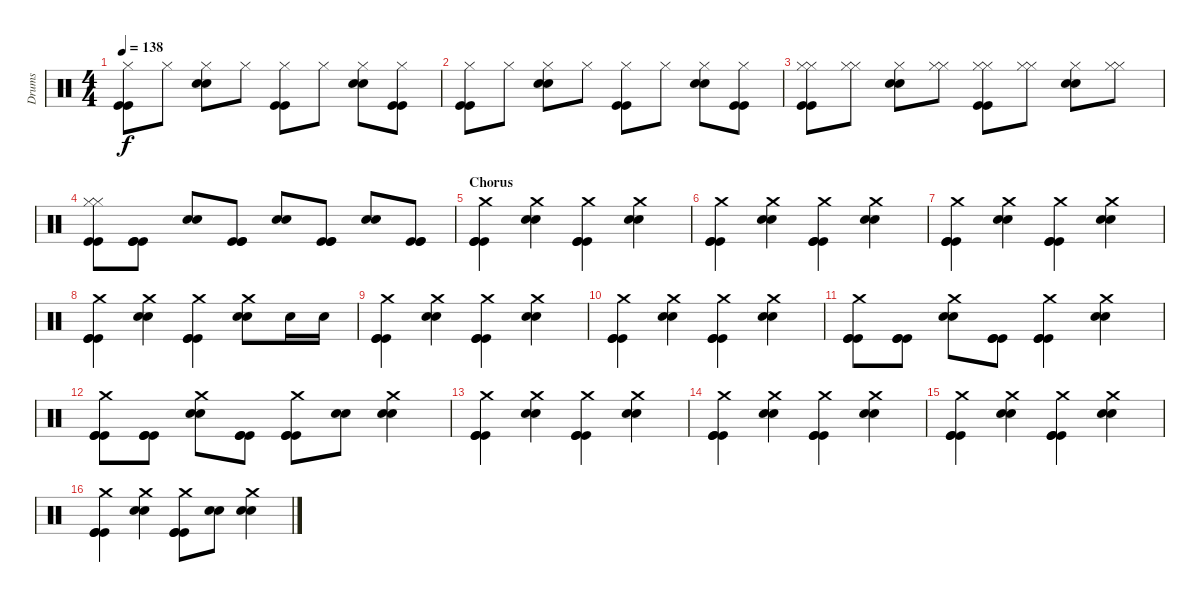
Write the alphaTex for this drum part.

\track ("Drums" "Drums") {instrument percussion}
\staff {score}
\articulation defaults
\ts (4 4)
\tempo 138
\clef neutral
\ks c
("Hi-Hat (closed)" "Kick (hit)" "Kick (hit)").8{dy f} "Hi-Hat (closed)".8 ("Hi-Hat (closed)" "Electric Snare (hit)" "Electric Snare (hit)").8 "Hi-Hat (closed)".8 ("Hi-Hat (closed)" "Kick (hit)" "Kick (hit)").8 "Hi-Hat (closed)".8 ("Hi-Hat (closed)" "Electric Snare (hit)" "Electric Snare (hit)").8 ("Hi-Hat (closed)" "Kick (hit)" "Kick (hit)").8 |
("Hi-Hat (closed)" "Kick (hit)" "Kick (hit)").8 "Hi-Hat (closed)".8 ("Hi-Hat (closed)" "Electric Snare (hit)" "Electric Snare (hit)").8 "Hi-Hat (closed)".8 ("Hi-Hat (closed)" "Kick (hit)" "Kick (hit)").8 "Hi-Hat (closed)".8 ("Hi-Hat (closed)" "Electric Snare (hit)" "Electric Snare (hit)").8 ("Hi-Hat (closed)" "Kick (hit)" "Kick (hit)").8 |
("Hi-Hat (closed)" "Hi-Hat (closed)" "Kick (hit)" "Kick (hit)").8 ("Hi-Hat (closed)" "Hi-Hat (closed)").8 ("Hi-Hat (closed)" "Electric Snare (hit)" "Electric Snare (hit)").8 ("Hi-Hat (closed)" "Hi-Hat (closed)").8 ("Hi-Hat (closed)" "Hi-Hat (closed)" "Kick (hit)" "Kick (hit)").8 ("Hi-Hat (closed)" "Hi-Hat (closed)").8 ("Hi-Hat (closed)" "Electric Snare (hit)" "Electric Snare (hit)").8 ("Hi-Hat (closed)" "Hi-Hat (closed)").8 |
("Hi-Hat (closed)" "Hi-Hat (closed)" "Kick (hit)" "Kick (hit)").8 ("Kick (hit)" "Kick (hit)" "Kick (hit)").8 ("Electric Snare (hit)" "Electric Snare (hit)").8 ("Kick (hit)" "Kick (hit)" "Kick (hit)").8 ("Electric Snare (hit)" "Electric Snare (hit)").8 ("Kick (hit)" "Kick (hit)" "Kick (hit)").8 ("Electric Snare (hit)" "Electric Snare (hit)").8 ("Kick (hit)" "Kick (hit)" "Kick (hit)").8 |
\section ("" "Chorus")
("Crash medium (hit)" "Kick (hit)" "Kick (hit)" "Kick (hit)").4 ("Crash medium (hit)" "Electric Snare (hit)" "Electric Snare (hit)").4 ("Crash medium (hit)" "Kick (hit)" "Kick (hit)" "Kick (hit)").4 ("Crash medium (hit)" "Electric Snare (hit)" "Electric Snare (hit)").4 |
("Crash medium (hit)" "Kick (hit)" "Kick (hit)" "Kick (hit)").4 ("Crash medium (hit)" "Electric Snare (hit)" "Electric Snare (hit)").4 ("Crash medium (hit)" "Kick (hit)" "Kick (hit)" "Kick (hit)").4 ("Crash medium (hit)" "Electric Snare (hit)" "Electric Snare (hit)").4 |
("Crash medium (hit)" "Kick (hit)" "Kick (hit)" "Kick (hit)").4 ("Crash medium (hit)" "Electric Snare (hit)" "Electric Snare (hit)").4 ("Crash medium (hit)" "Kick (hit)" "Kick (hit)" "Kick (hit)").4 ("Crash medium (hit)" "Electric Snare (hit)" "Electric Snare (hit)").4 |
("Crash medium (hit)" "Kick (hit)" "Kick (hit)" "Kick (hit)").4 ("Crash medium (hit)" "Electric Snare (hit)" "Electric Snare (hit)").4 ("Crash medium (hit)" "Kick (hit)" "Kick (hit)" "Kick (hit)").4 ("Crash medium (hit)" "Electric Snare (hit)" "Electric Snare (hit)").8 "Electric Snare (hit)".16 "Electric Snare (hit)".16 |
("Crash medium (hit)" "Kick (hit)" "Kick (hit)" "Kick (hit)").4 ("Crash medium (hit)" "Electric Snare (hit)" "Electric Snare (hit)").4 ("Crash medium (hit)" "Kick (hit)" "Kick (hit)" "Kick (hit)").4 ("Crash medium (hit)" "Electric Snare (hit)" "Electric Snare (hit)").4 |
("Crash medium (hit)" "Kick (hit)" "Kick (hit)" "Kick (hit)").4 ("Crash medium (hit)" "Electric Snare (hit)" "Electric Snare (hit)").4 ("Crash medium (hit)" "Kick (hit)" "Kick (hit)" "Kick (hit)").4 ("Crash medium (hit)" "Electric Snare (hit)" "Electric Snare (hit)").4 |
("Crash medium (hit)" "Kick (hit)" "Kick (hit)" "Kick (hit)").8 ("Kick (hit)" "Kick (hit)" "Kick (hit)").8 ("Crash medium (hit)" "Electric Snare (hit)" "Electric Snare (hit)").8 ("Kick (hit)" "Kick (hit)" "Kick (hit)").8 ("Crash medium (hit)" "Kick (hit)" "Kick (hit)" "Kick (hit)").4 ("Crash medium (hit)" "Electric Snare (hit)" "Electric Snare (hit)").4 |
("Crash medium (hit)" "Kick (hit)" "Kick (hit)" "Kick (hit)").8 ("Kick (hit)" "Kick (hit)" "Kick (hit)").8 ("Crash medium (hit)" "Electric Snare (hit)" "Electric Snare (hit)").8 ("Kick (hit)" "Kick (hit)" "Kick (hit)").8 ("Crash medium (hit)" "Kick (hit)" "Kick (hit)" "Kick (hit)").8 ("Electric Snare (hit)" "Electric Snare (hit)").8 ("Crash medium (hit)" "Electric Snare (hit)" "Electric Snare (hit)").4 |
("Crash medium (hit)" "Kick (hit)" "Kick (hit)" "Kick (hit)").4 ("Crash medium (hit)" "Electric Snare (hit)" "Electric Snare (hit)").4 ("Crash medium (hit)" "Kick (hit)" "Kick (hit)" "Kick (hit)").4 ("Crash medium (hit)" "Electric Snare (hit)" "Electric Snare (hit)").4 |
("Crash medium (hit)" "Kick (hit)" "Kick (hit)" "Kick (hit)").4 ("Crash medium (hit)" "Electric Snare (hit)" "Electric Snare (hit)").4 ("Crash medium (hit)" "Kick (hit)" "Kick (hit)" "Kick (hit)").4 ("Crash medium (hit)" "Electric Snare (hit)" "Electric Snare (hit)").4 |
("Crash medium (hit)" "Kick (hit)" "Kick (hit)" "Kick (hit)").4 ("Crash medium (hit)" "Electric Snare (hit)" "Electric Snare (hit)").4 ("Crash medium (hit)" "Kick (hit)" "Kick (hit)" "Kick (hit)").4 ("Crash medium (hit)" "Electric Snare (hit)" "Electric Snare (hit)").4 |
("Crash medium (hit)" "Kick (hit)" "Kick (hit)" "Kick (hit)").4 ("Crash medium (hit)" "Electric Snare (hit)" "Electric Snare (hit)").4 ("Crash medium (hit)" "Kick (hit)" "Kick (hit)" "Kick (hit)").8 ("Electric Snare (hit)" "Electric Snare (hit)").8 ("Crash medium (hit)" "Electric Snare (hit)" "Electric Snare (hit)").4
